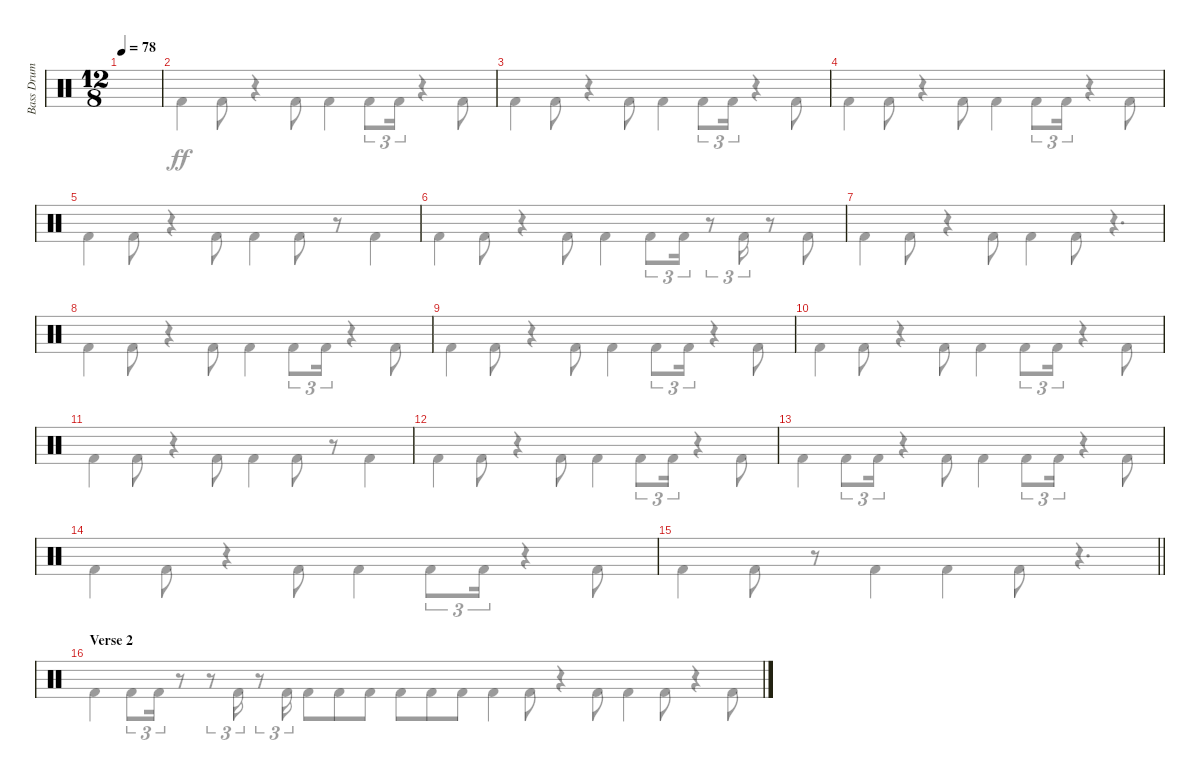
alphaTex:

\track ("Bass Drum" "Bass Drum") {instrument percussion}
\staff {score}
\articulation defaults
\voice
\ts (12 8)
\tempo 78
\clef neutral
\ks c
|
|
|
|
|
|
|
|
|
|
|
|
|
|
\barLineRight lightlight
|
\section ("" "Verse 2")
\voice
\clef neutral
\ks c "Kick (hit) 2".4{dy ff} "Kick (hit) 2".8{tu (3 2)} "Kick (hit) 2".16{tu (3 2)}
r.8 r.8{tu (3 2)} "Kick (hit) 2".16{tu (3 2)} r.8{tu (3 2)} "Kick (hit) 2".16{tu (3 2)} "Kick (hit) 2".8 "Kick (hit) 2".8 "Kick (hit) 2".8 "Kick (hit) 2".8 "Kick (hit) 2".8 "Kick (hit) 2".8 |
"Kick (hit) 2".4 "Kick (hit) 2".8 r.4 "Kick (hit) 2".8 "Kick (hit) 2".4 "Kick (hit) 2".8{tu (3 2)} "Kick (hit) 2".16{tu (3 2)} r.4 "Kick (hit) 2".8 |
"Kick (hit) 2".4 "Kick (hit) 2".8 r.4 "Kick (hit) 2".8 "Kick (hit) 2".4 "Kick (hit) 2".8{tu (3 2)} "Kick (hit) 2".16{tu (3 2)} r.4 "Kick (hit) 2".8 |
"Kick (hit) 2".4 "Kick (hit) 2".8 r.4 "Kick (hit) 2".8 "Kick (hit) 2".4 "Kick (hit) 2".8{tu (3 2)} "Kick (hit) 2".16{tu (3 2)} r.4 "Kick (hit) 2".8 |
"Kick (hit) 2".4 "Kick (hit) 2".8 r.4 "Kick (hit) 2".8 "Kick (hit) 2".4 "Kick (hit) 2".8 r.8 "Kick (hit) 2".4 |
"Kick (hit) 2".4 "Kick (hit) 2".8 r.4 "Kick (hit) 2".8 "Kick (hit) 2".4 "Kick (hit) 2".8{tu (3 2)} "Kick (hit) 2".16{tu (3 2)} r.8{tu (3 2)} "Kick (hit) 2".16{tu (3 2)} r.8 "Kick (hit) 2".8 |
"Kick (hit) 2".4 "Kick (hit) 2".8 r.4 "Kick (hit) 2".8 "Kick (hit) 2".4 "Kick (hit) 2".8 r.4{d} |
"Kick (hit) 2".4 "Kick (hit) 2".8 r.4 "Kick (hit) 2".8 "Kick (hit) 2".4 "Kick (hit) 2".8{tu (3 2)} "Kick (hit) 2".16{tu (3 2)} r.4 "Kick (hit) 2".8 |
"Kick (hit) 2".4 "Kick (hit) 2".8 r.4 "Kick (hit) 2".8 "Kick (hit) 2".4 "Kick (hit) 2".8{tu (3 2)} "Kick (hit) 2".16{tu (3 2)} r.4 "Kick (hit) 2".8 |
"Kick (hit) 2".4 "Kick (hit) 2".8 r.4 "Kick (hit) 2".8 "Kick (hit) 2".4 "Kick (hit) 2".8{tu (3 2)} "Kick (hit) 2".16{tu (3 2)} r.4 "Kick (hit) 2".8 |
"Kick (hit) 2".4 "Kick (hit) 2".8 r.4 "Kick (hit) 2".8 "Kick (hit) 2".4 "Kick (hit) 2".8 r.8 "Kick (hit) 2".4 |
"Kick (hit) 2".4 "Kick (hit) 2".8 r.4 "Kick (hit) 2".8 "Kick (hit) 2".4 "Kick (hit) 2".8{tu (3 2)} "Kick (hit) 2".16{tu (3 2)} r.4 "Kick (hit) 2".8 |
"Kick (hit) 2".4 "Kick (hit) 2".8{tu (3 2)} "Kick (hit) 2".16{tu (3 2)} r.4 "Kick (hit) 2".8 "Kick (hit) 2".4 "Kick (hit) 2".8{tu (3 2)} "Kick (hit) 2".16{tu (3 2)} r.4 "Kick (hit) 2".8 |
"Kick (hit) 2".4 "Kick (hit) 2".8 r.4 "Kick (hit) 2".8 "Kick (hit) 2".4 "Kick (hit) 2".8{tu (3 2)} "Kick (hit) 2".16{tu (3 2)} r.4 "Kick (hit) 2".8 |
\barLineRight lightlight "Kick (hit) 2".4 "Kick (hit) 2".8
r.8 "Kick (hit) 2".4 "Kick (hit) 2".4 "Kick (hit) 2".8 r.4{d} |
"Kick (hit) 2".4 "Kick (hit) 2".8 r.4 "Kick (hit) 2".8 "Kick (hit) 2".4 "Kick (hit) 2".8 r.4 "Kick (hit) 2".8
